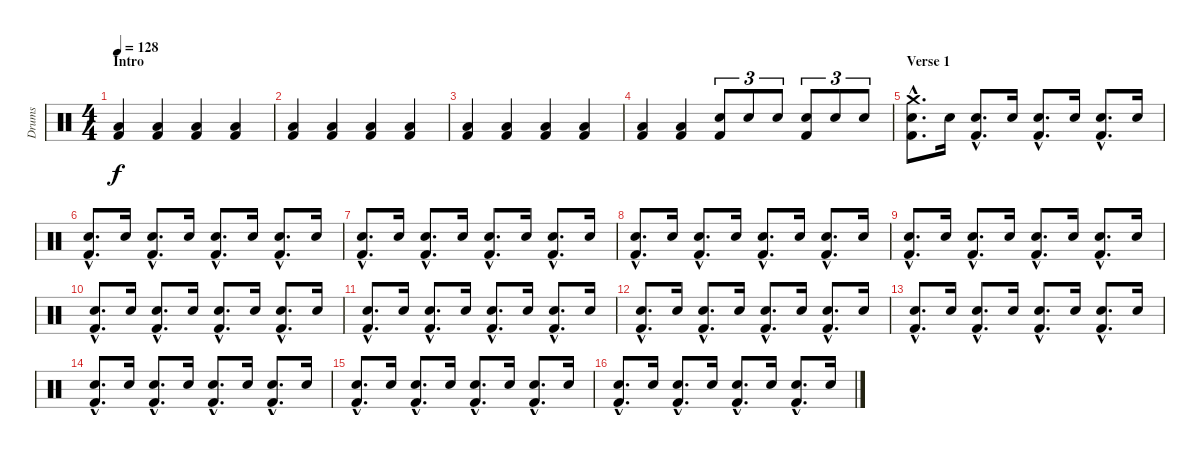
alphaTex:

\track ("Drums" "Drums") {instrument percussion}
\staff {score}
\articulation defaults
\ts (4 4)
\section ("" "Intro")
\tempo 128
\clef neutral
\ks c
("Low Floor Tom (hit)" "Kick (hit) 2").4{dy f} ("Low Floor Tom (hit)" "Kick (hit) 2").4 ("Low Floor Tom (hit)" "Kick (hit) 2").4 ("Low Floor Tom (hit)" "Kick (hit) 2").4 |
("Low Floor Tom (hit)" "Kick (hit) 2").4 ("Low Floor Tom (hit)" "Kick (hit) 2").4 ("Low Floor Tom (hit)" "Kick (hit) 2").4 ("Low Floor Tom (hit)" "Kick (hit) 2").4 |
("Low Floor Tom (hit)" "Kick (hit) 2").4 ("Low Floor Tom (hit)" "Kick (hit) 2").4 ("Low Floor Tom (hit)" "Kick (hit) 2").4 ("Low Floor Tom (hit)" "Kick (hit) 2").4 |
("Low Floor Tom (hit)" "Kick (hit) 2").4 ("Low Floor Tom (hit)" "Kick (hit) 2").4 ("Snare (hit) 2" "Kick (hit) 2").8{tu (3 2)} "Snare (hit) 2".8{tu (3 2)} "Snare (hit) 2".8{tu (3 2)} ("Snare (hit) 2" "Kick (hit) 2").8{tu (3 2)} "Snare (hit) 2".8{tu (3 2)} "Snare (hit) 2".8{tu (3 2)} |
\section ("" "Verse 1")
("Crash medium (hit)"{hac} "Snare (hit) 2"{hac} "Kick (hit) 2"{hac}).8{d} "Snare (hit) 2".16 ("Snare (hit) 2"{hac} "Kick (hit) 2"{hac}).8{d} "Snare (hit) 2".16 ("Snare (hit) 2"{hac} "Kick (hit) 2"{hac}).8{d} "Snare (hit) 2".16 ("Snare (hit) 2"{hac} "Kick (hit) 2"{hac}).8{d} "Snare (hit) 2".16 |
("Snare (hit) 2"{hac} "Kick (hit) 2"{hac}).8{d} "Snare (hit) 2".16 ("Snare (hit) 2"{hac} "Kick (hit) 2"{hac}).8{d} "Snare (hit) 2".16 ("Snare (hit) 2"{hac} "Kick (hit) 2"{hac}).8{d} "Snare (hit) 2".16 ("Snare (hit) 2"{hac} "Kick (hit) 2"{hac}).8{d} "Snare (hit) 2".16 |
("Snare (hit) 2"{hac} "Kick (hit) 2"{hac}).8{d} "Snare (hit) 2".16 ("Snare (hit) 2"{hac} "Kick (hit) 2"{hac}).8{d} "Snare (hit) 2".16 ("Snare (hit) 2"{hac} "Kick (hit) 2"{hac}).8{d} "Snare (hit) 2".16 ("Snare (hit) 2"{hac} "Kick (hit) 2"{hac}).8{d} "Snare (hit) 2".16 |
("Snare (hit) 2"{hac} "Kick (hit) 2"{hac}).8{d} "Snare (hit) 2".16 ("Snare (hit) 2"{hac} "Kick (hit) 2"{hac}).8{d} "Snare (hit) 2".16 ("Snare (hit) 2"{hac} "Kick (hit) 2"{hac}).8{d} "Snare (hit) 2".16 ("Snare (hit) 2"{hac} "Kick (hit) 2"{hac}).8{d} "Snare (hit) 2".16 |
("Snare (hit) 2"{hac} "Kick (hit) 2"{hac}).8{d} "Snare (hit) 2".16 ("Snare (hit) 2"{hac} "Kick (hit) 2"{hac}).8{d} "Snare (hit) 2".16 ("Snare (hit) 2"{hac} "Kick (hit) 2"{hac}).8{d} "Snare (hit) 2".16 ("Snare (hit) 2"{hac} "Kick (hit) 2"{hac}).8{d} "Snare (hit) 2".16 |
("Snare (hit) 2"{hac} "Kick (hit) 2"{hac}).8{d} "Snare (hit) 2".16 ("Snare (hit) 2"{hac} "Kick (hit) 2"{hac}).8{d} "Snare (hit) 2".16 ("Snare (hit) 2"{hac} "Kick (hit) 2"{hac}).8{d} "Snare (hit) 2".16 ("Snare (hit) 2"{hac} "Kick (hit) 2"{hac}).8{d} "Snare (hit) 2".16 |
("Snare (hit) 2"{hac} "Kick (hit) 2"{hac}).8{d} "Snare (hit) 2".16 ("Snare (hit) 2"{hac} "Kick (hit) 2"{hac}).8{d} "Snare (hit) 2".16 ("Snare (hit) 2"{hac} "Kick (hit) 2"{hac}).8{d} "Snare (hit) 2".16 ("Snare (hit) 2"{hac} "Kick (hit) 2"{hac}).8{d} "Snare (hit) 2".16 |
("Snare (hit) 2"{hac} "Kick (hit) 2"{hac}).8{d} "Snare (hit) 2".16 ("Snare (hit) 2"{hac} "Kick (hit) 2"{hac}).8{d} "Snare (hit) 2".16 ("Snare (hit) 2"{hac} "Kick (hit) 2"{hac}).8{d} "Snare (hit) 2".16 ("Snare (hit) 2"{hac} "Kick (hit) 2"{hac}).8{d} "Snare (hit) 2".16 |
("Snare (hit) 2"{hac} "Kick (hit) 2"{hac}).8{d} "Snare (hit) 2".16 ("Snare (hit) 2"{hac} "Kick (hit) 2"{hac}).8{d} "Snare (hit) 2".16 ("Snare (hit) 2"{hac} "Kick (hit) 2"{hac}).8{d} "Snare (hit) 2".16 ("Snare (hit) 2"{hac} "Kick (hit) 2"{hac}).8{d} "Snare (hit) 2".16 |
("Snare (hit) 2"{hac} "Kick (hit) 2"{hac}).8{d} "Snare (hit) 2".16 ("Snare (hit) 2"{hac} "Kick (hit) 2"{hac}).8{d} "Snare (hit) 2".16 ("Snare (hit) 2"{hac} "Kick (hit) 2"{hac}).8{d} "Snare (hit) 2".16 ("Snare (hit) 2"{hac} "Kick (hit) 2"{hac}).8{d} "Snare (hit) 2".16 |
("Snare (hit) 2"{hac} "Kick (hit) 2"{hac}).8{d} "Snare (hit) 2".16 ("Snare (hit) 2"{hac} "Kick (hit) 2"{hac}).8{d} "Snare (hit) 2".16 ("Snare (hit) 2"{hac} "Kick (hit) 2"{hac}).8{d} "Snare (hit) 2".16 ("Snare (hit) 2"{hac} "Kick (hit) 2"{hac}).8{d} "Snare (hit) 2".16 |
("Snare (hit) 2"{hac} "Kick (hit) 2"{hac}).8{d} "Snare (hit) 2".16 ("Snare (hit) 2"{hac} "Kick (hit) 2"{hac}).8{d} "Snare (hit) 2".16 ("Snare (hit) 2"{hac} "Kick (hit) 2"{hac}).8{d} "Snare (hit) 2".16 ("Snare (hit) 2"{hac} "Kick (hit) 2"{hac}).8{d} "Snare (hit) 2".16
